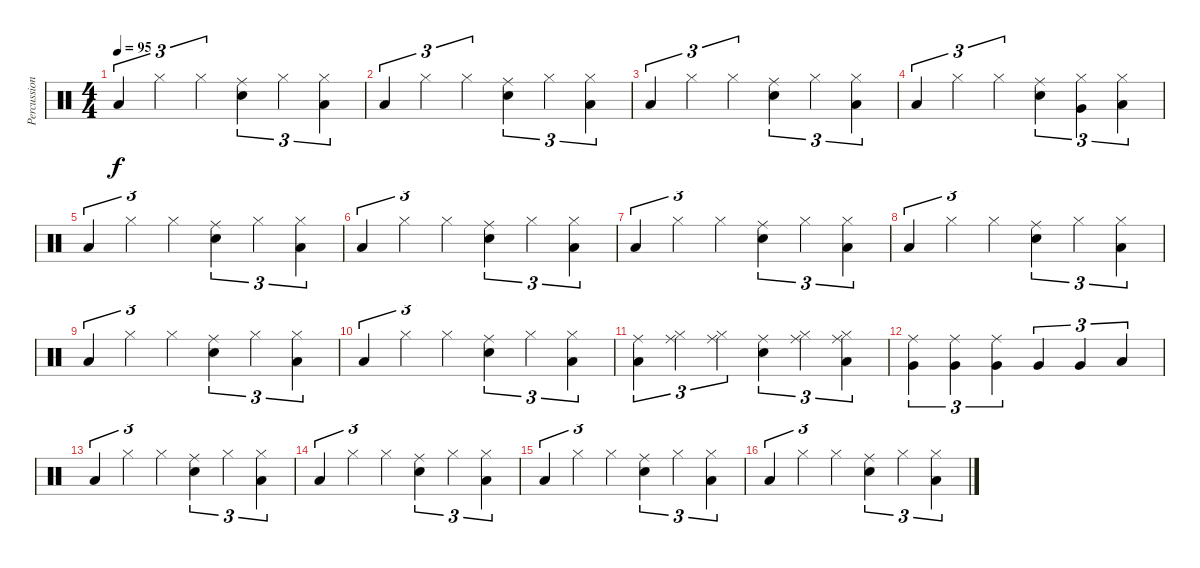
\track ("Percussion" "Percussion") {instrument percussion}
\staff {score}
\articulation defaults
\ts (4 4)
\tempo 95
\clef neutral
\ks c "Low Floor Tom (hit)".4{tu (3 2) dy f} "Hi-Hat (closed)".4{tu (3 2)} "Hi-Hat (closed)".4{tu (3 2)}
("Electric Snare (hit)" "Ride (middle)").4{tu (3 2)} "Hi-Hat (closed)".4{tu (3 2)} ("Hi-Hat (closed)" "Low Floor Tom (hit)").4{tu (3 2)} |
"Low Floor Tom (hit)".4{tu (3 2)} "Hi-Hat (closed)".4{tu (3 2)} "Hi-Hat (closed)".4{tu (3 2)} ("Electric Snare (hit)" "Ride (middle)").4{tu (3 2)} "Hi-Hat (closed)".4{tu (3 2)} ("Hi-Hat (closed)" "Low Floor Tom (hit)").4{tu (3 2)} |
"Low Floor Tom (hit)".4{tu (3 2)} "Hi-Hat (closed)".4{tu (3 2)} "Hi-Hat (closed)".4{tu (3 2)} ("Electric Snare (hit)" "Ride (middle)").4{tu (3 2)} "Hi-Hat (closed)".4{tu (3 2)} ("Hi-Hat (closed)" "Low Floor Tom (hit)").4{tu (3 2)} |
"Low Floor Tom (hit)".4{tu (3 2)} "Hi-Hat (closed)".4{tu (3 2)} "Hi-Hat (closed)".4{tu (3 2)} ("Electric Snare (hit)" "Ride (middle)").4{tu (3 2)} ("Hi-Hat (closed)" "Very Low Tom (hit)").4{tu (3 2)} ("Hi-Hat (closed)" "Low Floor Tom (hit)").4{tu (3 2)} |
"Low Floor Tom (hit)".4{tu (3 2)} "Hi-Hat (closed)".4{tu (3 2)} "Hi-Hat (closed)".4{tu (3 2)} ("Electric Snare (hit)" "Ride (middle)").4{tu (3 2)} "Hi-Hat (closed)".4{tu (3 2)} ("Hi-Hat (closed)" "Low Floor Tom (hit)").4{tu (3 2)} |
"Low Floor Tom (hit)".4{tu (3 2)} "Hi-Hat (closed)".4{tu (3 2)} "Hi-Hat (closed)".4{tu (3 2)} ("Electric Snare (hit)" "Ride (middle)").4{tu (3 2)} "Hi-Hat (closed)".4{tu (3 2)} ("Hi-Hat (closed)" "Low Floor Tom (hit)").4{tu (3 2)} |
"Low Floor Tom (hit)".4{tu (3 2)} "Hi-Hat (closed)".4{tu (3 2)} "Hi-Hat (closed)".4{tu (3 2)} ("Electric Snare (hit)" "Ride (middle)").4{tu (3 2)} "Hi-Hat (closed)".4{tu (3 2)} ("Hi-Hat (closed)" "Low Floor Tom (hit)").4{tu (3 2)} |
"Low Floor Tom (hit)".4{tu (3 2)} "Hi-Hat (closed)".4{tu (3 2)} "Hi-Hat (closed)".4{tu (3 2)} ("Electric Snare (hit)" "Ride (middle)").4{tu (3 2)} "Hi-Hat (closed)".4{tu (3 2)} ("Hi-Hat (closed)" "Low Floor Tom (hit)").4{tu (3 2)} |
"Low Floor Tom (hit)".4{tu (3 2)} "Hi-Hat (closed)".4{tu (3 2)} "Hi-Hat (closed)".4{tu (3 2)} ("Electric Snare (hit)" "Ride (middle)").4{tu (3 2)} "Hi-Hat (closed)".4{tu (3 2)} ("Hi-Hat (closed)" "Low Floor Tom (hit)").4{tu (3 2)} |
"Low Floor Tom (hit)".4{tu (3 2)} "Hi-Hat (closed)".4{tu (3 2)} "Hi-Hat (closed)".4{tu (3 2)} ("Electric Snare (hit)" "Ride (middle)").4{tu (3 2)} "Hi-Hat (closed)".4{tu (3 2)} ("Hi-Hat (closed)" "Low Floor Tom (hit)").4{tu (3 2)} |
("Low Floor Tom (hit)" "Ride (middle)").4{tu (3 2) volume 16} ("Hi-Hat (closed)" "Ride (middle)").4{tu (3 2)} ("Hi-Hat (closed)" "Ride (middle)").4{tu (3 2)} ("Electric Snare (hit)" "Ride (middle)").4{tu (3 2)} ("Hi-Hat (closed)" "Ride (middle)").4{tu (3 2)} ("Hi-Hat (closed)" "Low Floor Tom (hit)" "Ride (middle)").4{tu (3 2)} |
("Ride (middle)" "Very Low Tom (hit)").4{tu (3 2)} ("Ride (middle)" "Very Low Tom (hit)").4{tu (3 2)} ("Ride (middle)" "Very Low Tom (hit)").4{tu (3 2)} "Very Low Tom (hit)".4{tu (3 2)} "Very Low Tom (hit)".4{tu (3 2)} "Low Floor Tom (hit)".4{tu (3 2)} |
"Low Floor Tom (hit)".4{tu (3 2) volume 6} "Hi-Hat (closed)".4{tu (3 2)} "Hi-Hat (closed)".4{tu (3 2)} ("Electric Snare (hit)" "Ride (middle)").4{tu (3 2)} "Hi-Hat (closed)".4{tu (3 2)} ("Hi-Hat (closed)" "Low Floor Tom (hit)").4{tu (3 2)} |
"Low Floor Tom (hit)".4{tu (3 2)} "Hi-Hat (closed)".4{tu (3 2)} "Hi-Hat (closed)".4{tu (3 2)} ("Electric Snare (hit)" "Ride (middle)").4{tu (3 2)} "Hi-Hat (closed)".4{tu (3 2)} ("Hi-Hat (closed)" "Low Floor Tom (hit)").4{tu (3 2)} |
"Low Floor Tom (hit)".4{tu (3 2)} "Hi-Hat (closed)".4{tu (3 2)} "Hi-Hat (closed)".4{tu (3 2)} ("Electric Snare (hit)" "Ride (middle)").4{tu (3 2)} "Hi-Hat (closed)".4{tu (3 2)} ("Hi-Hat (closed)" "Low Floor Tom (hit)").4{tu (3 2)} |
"Low Floor Tom (hit)".4{tu (3 2)} "Hi-Hat (closed)".4{tu (3 2)} "Hi-Hat (closed)".4{tu (3 2)} ("Electric Snare (hit)" "Ride (middle)").4{tu (3 2)} "Hi-Hat (closed)".4{tu (3 2)} ("Hi-Hat (closed)" "Low Floor Tom (hit)").4{tu (3 2)}
